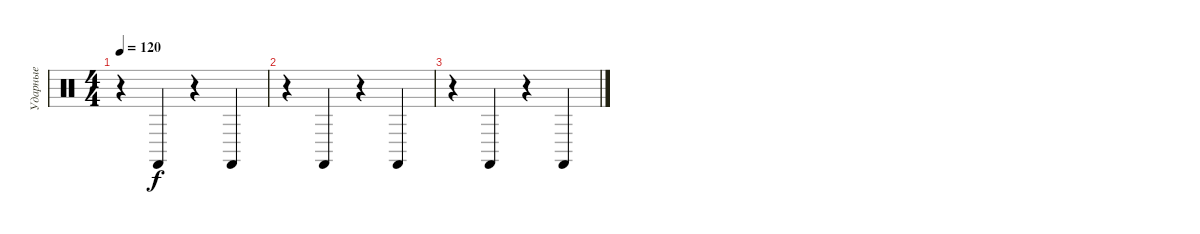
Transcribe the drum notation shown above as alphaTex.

\track ("Ударные" "Ударные") {instrument percussion}
\staff {score}
\articulation defaults
\ts (4 4)
\tempo 120
\clef neutral
\ks c
r.4{dy f} "Castanets (hit)".4 r.4 "Castanets (hit)".4 |
r.4 "Castanets (hit)".4 r.4 "Castanets (hit)".4 |
r.4 "Castanets (hit)".4 r.4 "Castanets (hit)".4
